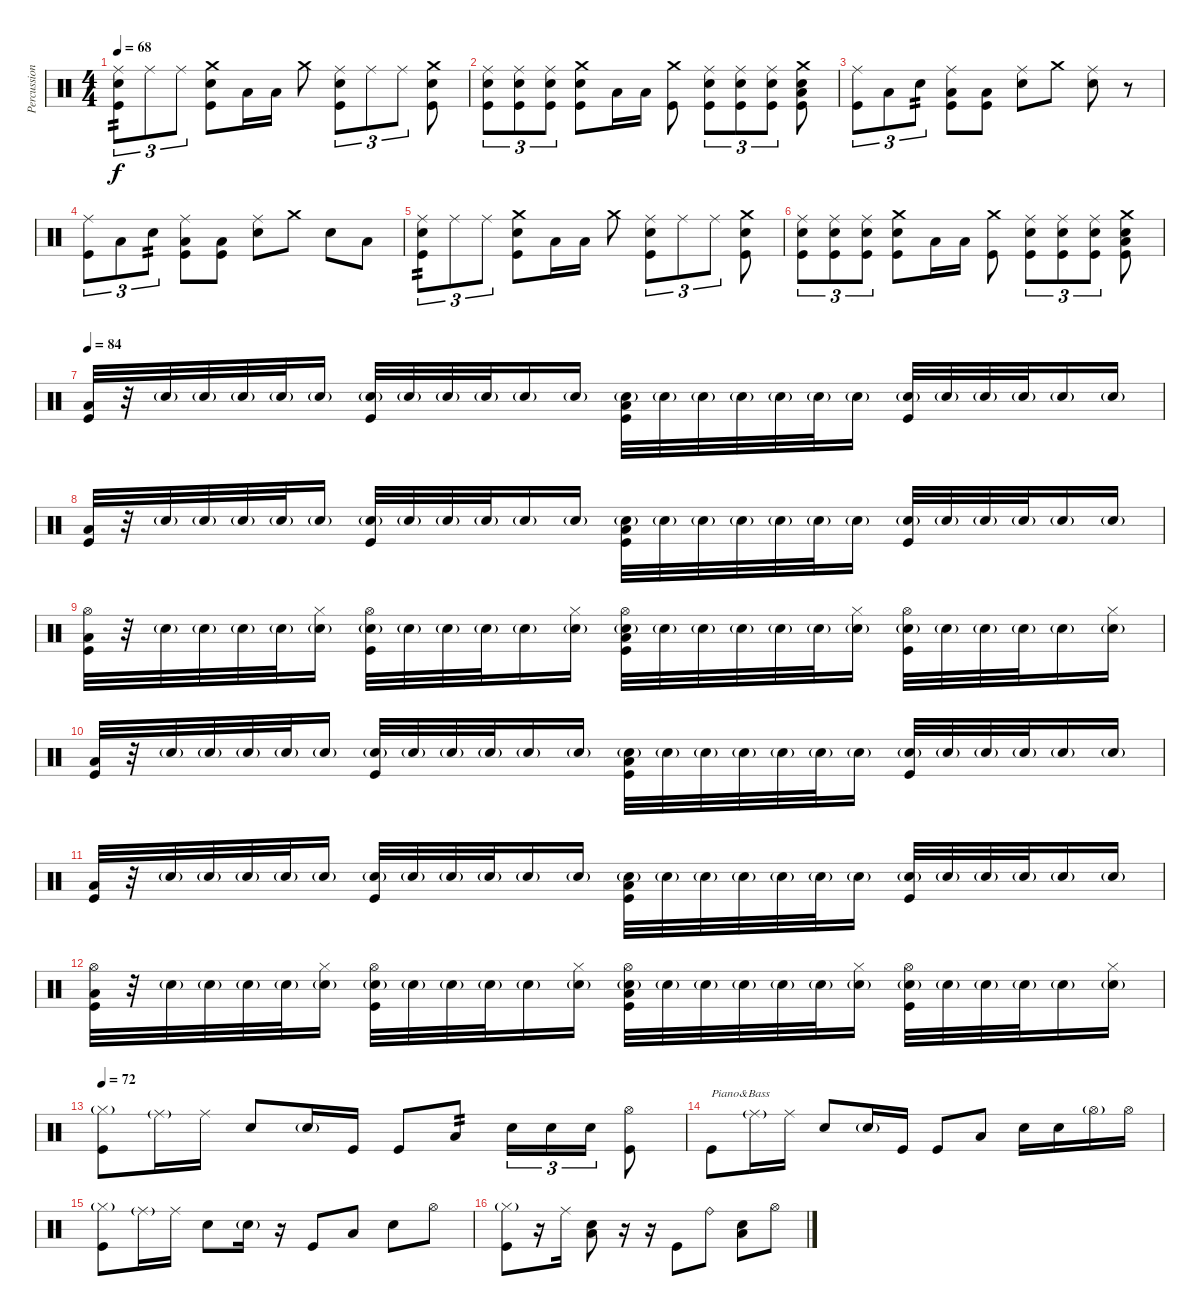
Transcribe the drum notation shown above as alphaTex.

\track ("Percussion" "Percussion") {instrument percussion}
\staff {score}
\articulation defaults
\ts (4 4)
\tempo 68
\clef neutral
\ks c
("Ride (middle)" "Snare (hit) 2" "Kick (hit)").8{tu (3 2) tp 2 dy f} "Ride (middle)".8{tu (3 2)} "Ride (middle)".8{tu (3 2)} ("Crash medium (hit)" "Snare (hit) 2" "Kick (hit)").8 "Low Floor Tom (hit)".16 "Low Floor Tom (hit)".16 "Crash medium (hit)".8 ("Ride (middle)" "Snare (hit) 2" "Kick (hit)").8{tu (3 2)} "Ride (middle)".8{tu (3 2)} "Ride (middle)".8{tu (3 2)} ("Crash medium (hit)" "Snare (hit) 2" "Kick (hit)").8 |
("Ride (middle)" "Snare (hit) 2" "Kick (hit)").8{tu (3 2)} ("Ride (middle)" "Snare (hit) 2" "Kick (hit)").8{tu (3 2)} ("Ride (middle)" "Snare (hit) 2" "Kick (hit)").8{tu (3 2)} ("Crash medium (hit)" "Snare (hit) 2" "Kick (hit)").8 "Low Floor Tom (hit)".16 "Low Floor Tom (hit)".16 ("Crash medium (hit)" "Kick (hit)").8 ("Ride (middle)" "Snare (hit) 2" "Kick (hit)").8{tu (3 2)} ("Ride (middle)" "Snare (hit) 2" "Kick (hit)").8{tu (3 2)} ("Ride (middle)" "Snare (hit) 2" "Kick (hit)").8{tu (3 2)} ("Crash medium (hit)" "Low Floor Tom (hit)" "Snare (hit) 2" "Kick (hit)").8 |
("Ride (middle)" "Kick (hit)").8{tu (3 2)} "Low Floor Tom (hit)".8{tu (3 2)} "Snare (hit) 2".8{tu (3 2) tp 2} ("Ride (middle)" "Low Floor Tom (hit)" "Kick (hit)").8 ("Low Floor Tom (hit)" "Kick (hit)").8 ("Ride (middle)" "Snare (hit) 2").8 "Crash medium (hit)".8 ("Ride (middle)" "Snare (hit) 2").8 r.8 |
("Ride (middle)" "Kick (hit)").8{tu (3 2)} "Low Floor Tom (hit)".8{tu (3 2)} "Snare (hit) 2".8{tu (3 2) tp 2} ("Ride (middle)" "Low Floor Tom (hit)" "Kick (hit)").8 ("Low Floor Tom (hit)" "Kick (hit)").8 ("Ride (middle)" "Snare (hit) 2").8 "Crash medium (hit)".8 "Snare (hit) 2".8 "Low Floor Tom (hit)".8 |
("Ride (middle)" "Snare (hit) 2" "Kick (hit)").8{tu (3 2) tp 2} "Ride (middle)".8{tu (3 2)} "Ride (middle)".8{tu (3 2)} ("Crash medium (hit)" "Snare (hit) 2" "Kick (hit)").8 "Low Floor Tom (hit)".16 "Low Floor Tom (hit)".16 "Crash medium (hit)".8 ("Ride (middle)" "Snare (hit) 2" "Kick (hit)").8{tu (3 2)} "Ride (middle)".8{tu (3 2)} "Ride (middle)".8{tu (3 2)} ("Crash medium (hit)" "Snare (hit) 2" "Kick (hit)").8 |
("Ride (middle)" "Snare (hit) 2" "Kick (hit)").8{tu (3 2)} ("Ride (middle)" "Snare (hit) 2" "Kick (hit)").8{tu (3 2)} ("Ride (middle)" "Snare (hit) 2" "Kick (hit)").8{tu (3 2)} ("Crash medium (hit)" "Snare (hit) 2" "Kick (hit)").8 "Low Floor Tom (hit)".16 "Low Floor Tom (hit)".16 ("Crash medium (hit)" "Kick (hit)").8 ("Ride (middle)" "Snare (hit) 2" "Kick (hit)").8{tu (3 2)} ("Ride (middle)" "Snare (hit) 2" "Kick (hit)").8{tu (3 2)} ("Ride (middle)" "Snare (hit) 2" "Kick (hit)").8{tu (3 2)} ("Crash medium (hit)" "Low Floor Tom (hit)" "Snare (hit) 2" "Kick (hit)").8 |
\tempo 84
("Low Floor Tom (hit)" "Kick (hit)").32 r.32 "Snare (hit) 2"{g}.32 "Snare (hit) 2"{g}.32 "Snare (hit) 2"{g}.32 "Snare (hit) 2"{g}.32 "Snare (hit) 2"{g}.16 ("Snare (hit) 2"{g} "Kick (hit)").32 "Snare (hit) 2"{g}.32 "Snare (hit) 2"{g}.32 "Snare (hit) 2"{g}.32 "Snare (hit) 2"{g}.16 "Snare (hit) 2"{g}.16 ("Low Floor Tom (hit)" "Snare (hit) 2"{g} "Kick (hit)").32 "Snare (hit) 2"{g}.32 "Snare (hit) 2"{g}.32 "Snare (hit) 2"{g}.32 "Snare (hit) 2"{g}.32 "Snare (hit) 2"{g}.32 "Snare (hit) 2"{g}.16 ("Snare (hit) 2"{g} "Kick (hit)").32 "Snare (hit) 2"{g}.32 "Snare (hit) 2"{g}.32 "Snare (hit) 2"{g}.32 "Snare (hit) 2"{g}.16 "Snare (hit) 2"{g}.16 |
("Low Floor Tom (hit)" "Kick (hit)").32 r.32 "Snare (hit) 2"{g}.32 "Snare (hit) 2"{g}.32 "Snare (hit) 2"{g}.32 "Snare (hit) 2"{g}.32 "Snare (hit) 2"{g}.16 ("Snare (hit) 2"{g} "Kick (hit)").32 "Snare (hit) 2"{g}.32 "Snare (hit) 2"{g}.32 "Snare (hit) 2"{g}.32 "Snare (hit) 2"{g}.16 "Snare (hit) 2"{g}.16 ("Low Floor Tom (hit)" "Snare (hit) 2"{g} "Kick (hit)").32 "Snare (hit) 2"{g}.32 "Snare (hit) 2"{g}.32 "Snare (hit) 2"{g}.32 "Snare (hit) 2"{g}.32 "Snare (hit) 2"{g}.32 "Snare (hit) 2"{g}.16 ("Snare (hit) 2"{g} "Kick (hit)").32 "Snare (hit) 2"{g}.32 "Snare (hit) 2"{g}.32 "Snare (hit) 2"{g}.32 "Snare (hit) 2"{g}.16 "Snare (hit) 2"{g}.16 |
("Hi-Hat (open)" "Low Floor Tom (hit)" "Kick (hit)").32 r.32 "Snare (hit) 2"{g}.32 "Snare (hit) 2"{g}.32 "Snare (hit) 2"{g}.32 "Snare (hit) 2"{g}.32 ("Hi-Hat (closed)" "Snare (hit) 2"{g}).16 ("Hi-Hat (open)" "Snare (hit) 2"{g} "Kick (hit)").32 "Snare (hit) 2"{g}.32 "Snare (hit) 2"{g}.32 "Snare (hit) 2"{g}.32 "Snare (hit) 2"{g}.16 ("Hi-Hat (closed)" "Snare (hit) 2"{g}).16 ("Hi-Hat (open)" "Low Floor Tom (hit)" "Snare (hit) 2"{g} "Kick (hit)").32 "Snare (hit) 2"{g}.32 "Snare (hit) 2"{g}.32 "Snare (hit) 2"{g}.32 "Snare (hit) 2"{g}.32 "Snare (hit) 2"{g}.32 ("Hi-Hat (closed)" "Snare (hit) 2"{g}).16 ("Hi-Hat (open)" "Snare (hit) 2"{g} "Kick (hit)").32 "Snare (hit) 2"{g}.32 "Snare (hit) 2"{g}.32 "Snare (hit) 2"{g}.32 "Snare (hit) 2"{g}.16 ("Hi-Hat (closed)" "Snare (hit) 2"{g}).16 |
("Low Floor Tom (hit)" "Kick (hit)").32 r.32 "Snare (hit) 2"{g}.32 "Snare (hit) 2"{g}.32 "Snare (hit) 2"{g}.32 "Snare (hit) 2"{g}.32 "Snare (hit) 2"{g}.16 ("Snare (hit) 2"{g} "Kick (hit)").32 "Snare (hit) 2"{g}.32 "Snare (hit) 2"{g}.32 "Snare (hit) 2"{g}.32 "Snare (hit) 2"{g}.16 "Snare (hit) 2"{g}.16 ("Low Floor Tom (hit)" "Snare (hit) 2"{g} "Kick (hit)").32 "Snare (hit) 2"{g}.32 "Snare (hit) 2"{g}.32 "Snare (hit) 2"{g}.32 "Snare (hit) 2"{g}.32 "Snare (hit) 2"{g}.32 "Snare (hit) 2"{g}.16 ("Snare (hit) 2"{g} "Kick (hit)").32 "Snare (hit) 2"{g}.32 "Snare (hit) 2"{g}.32 "Snare (hit) 2"{g}.32 "Snare (hit) 2"{g}.16 "Snare (hit) 2"{g}.16 |
("Low Floor Tom (hit)" "Kick (hit)").32 r.32 "Snare (hit) 2"{g}.32 "Snare (hit) 2"{g}.32 "Snare (hit) 2"{g}.32 "Snare (hit) 2"{g}.32 "Snare (hit) 2"{g}.16 ("Snare (hit) 2"{g} "Kick (hit)").32 "Snare (hit) 2"{g}.32 "Snare (hit) 2"{g}.32 "Snare (hit) 2"{g}.32 "Snare (hit) 2"{g}.16 "Snare (hit) 2"{g}.16 ("Low Floor Tom (hit)" "Snare (hit) 2"{g} "Kick (hit)").32 "Snare (hit) 2"{g}.32 "Snare (hit) 2"{g}.32 "Snare (hit) 2"{g}.32 "Snare (hit) 2"{g}.32 "Snare (hit) 2"{g}.32 "Snare (hit) 2"{g}.16 ("Snare (hit) 2"{g} "Kick (hit)").32 "Snare (hit) 2"{g}.32 "Snare (hit) 2"{g}.32 "Snare (hit) 2"{g}.32 "Snare (hit) 2"{g}.16 "Snare (hit) 2"{g}.16 |
("Hi-Hat (open)" "Low Floor Tom (hit)" "Kick (hit)").32 r.32 "Snare (hit) 2"{g}.32 "Snare (hit) 2"{g}.32 "Snare (hit) 2"{g}.32 "Snare (hit) 2"{g}.32 ("Hi-Hat (closed)" "Snare (hit) 2"{g}).16 ("Hi-Hat (open)" "Snare (hit) 2"{g} "Kick (hit)").32 "Snare (hit) 2"{g}.32 "Snare (hit) 2"{g}.32 "Snare (hit) 2"{g}.32 "Snare (hit) 2"{g}.16 ("Hi-Hat (closed)" "Snare (hit) 2"{g}).16 ("Hi-Hat (open)" "Low Floor Tom (hit)" "Snare (hit) 2"{g} "Kick (hit)").32 "Snare (hit) 2"{g}.32 "Snare (hit) 2"{g}.32 "Snare (hit) 2"{g}.32 "Snare (hit) 2"{g}.32 "Snare (hit) 2"{g}.32 ("Hi-Hat (closed)" "Snare (hit) 2"{g}).16 ("Hi-Hat (open)" "Snare (hit) 2"{g} "Kick (hit)").32 "Snare (hit) 2"{g}.32 "Snare (hit) 2"{g}.32 "Snare (hit) 2"{g}.32 "Snare (hit) 2"{g}.16 ("Hi-Hat (closed)" "Snare (hit) 2"{g}).16 |
\tempo 72
("Hi-Hat (closed)"{g} "Kick (hit)").8 "Ride (middle)"{g}.16 "Ride (middle)".16 "Snare (hit) 2".8 "Snare (hit) 2"{g}.16 "Kick (hit)".16 "Kick (hit)".8 "Low Floor Tom (hit)".8{tp 2} "Snare (hit) 2".16{tu (3 2)} "Snare (hit) 2".16{tu (3 2)} "Snare (hit) 2".16{tu (3 2)} ("Hi-Hat (open)" "Kick (hit)").8 |
"Kick (hit)".8{txt "Piano&Bass"} "Ride (middle)"{g}.16 "Ride (middle)".16 "Snare (hit) 2".8 "Snare (hit) 2"{g}.16 "Kick (hit)".16 "Kick (hit)".8 "Low Floor Tom (hit)".8 "Snare (hit) 2".16 "Snare (hit) 2".16 "Hi-Hat (open)"{g}.16 "Hi-Hat (open)".16 |
("Hi-Hat (closed)"{g} "Kick (hit)").8 "Ride (middle)"{g}.16 "Ride (middle)".16 "Snare (hit) 2".8 "Snare (hit) 2"{g}.16 r.16 "Kick (hit)".8 "Low Floor Tom (hit)".8 "Snare (hit) 2".8 "Hi-Hat (open)".8 |
("Hi-Hat (closed)"{g} "Kick (hit)").8 r.16 "Ride (middle)".16 ("Snare (hit) 2" "Low Floor Tom (hit)").8 r.16 r.16 "Kick (hit)".8 "Ride (bell)".8 ("Snare (hit) 2" "Low Floor Tom (hit)").8 "Hi-Hat (open)".8
